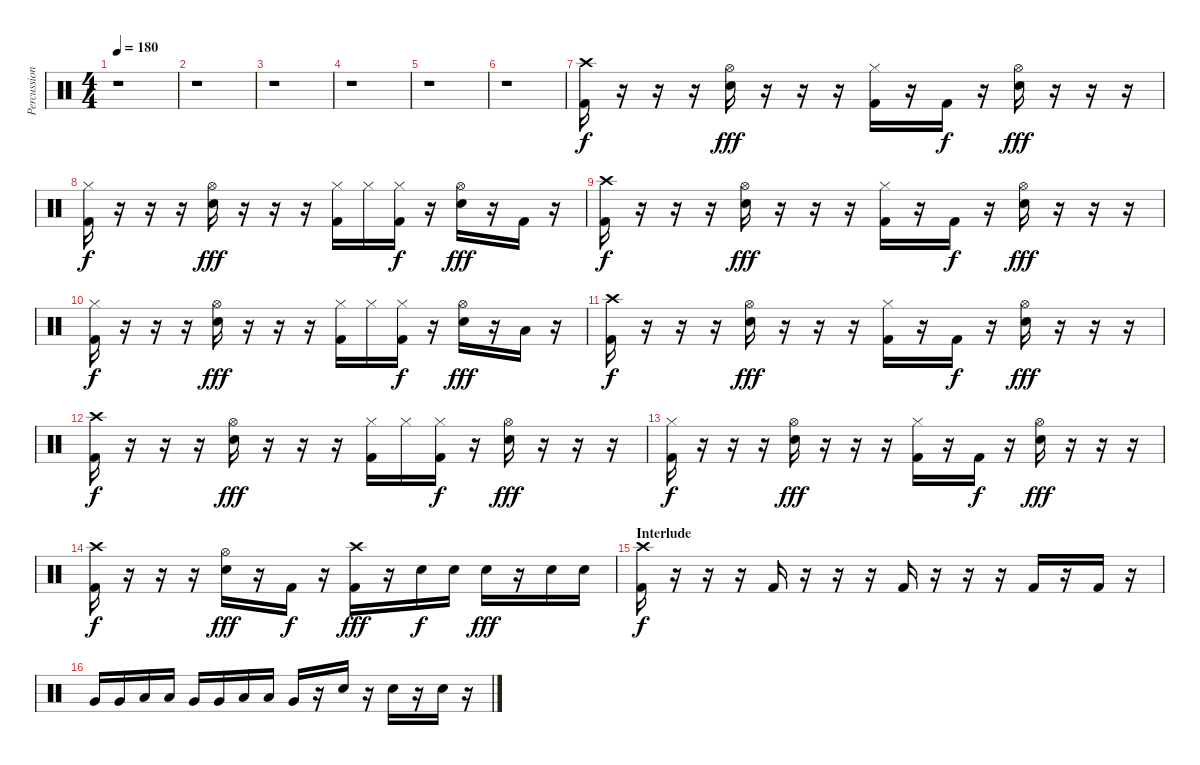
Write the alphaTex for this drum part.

\track ("Percussion" "Percussion") {instrument percussion}
\staff {score}
\articulation defaults
\ts (4 4)
\tempo 180
\clef neutral
\ks c
r.1{dy f} |
r.1 |
r.1 |
r.1 |
r.1 |
r.1 |
("Crash high (hit)" "Kick (hit) 2").16 r.16 r.16 r.16 ("Hi-Hat (open)" "Electric Snare (hit)").16{dy fff} r.16 r.16 r.16 ("Hi-Hat (closed)" "Kick (hit) 2").16 r.16 "Kick (hit) 2".16{dy f} r.16 ("Hi-Hat (open)" "Electric Snare (hit)").16{dy fff} r.16 r.16 r.16 |
("Hi-Hat (closed)" "Kick (hit) 2").16{dy f} r.16 r.16 r.16 ("Hi-Hat (open)" "Electric Snare (hit)").16{dy fff} r.16 r.16 r.16 ("Hi-Hat (closed)" "Kick (hit) 2").16 "Hi-Hat (closed)".16 ("Hi-Hat (closed)" "Kick (hit) 2").16{dy f} r.16 ("Hi-Hat (open)" "Electric Snare (hit)").16{dy fff} r.16 "Kick (hit) 2".16 r.16 |
("Crash high (hit)" "Kick (hit) 2").16{dy f} r.16 r.16 r.16 ("Hi-Hat (open)" "Electric Snare (hit)").16{dy fff} r.16 r.16 r.16 ("Hi-Hat (closed)" "Kick (hit) 2").16 r.16 "Kick (hit) 2".16{dy f} r.16 ("Hi-Hat (open)" "Electric Snare (hit)").16{dy fff} r.16 r.16 r.16 |
("Hi-Hat (closed)" "Kick (hit) 2").16{dy f} r.16 r.16 r.16 ("Hi-Hat (open)" "Electric Snare (hit)").16{dy fff} r.16 r.16 r.16 ("Hi-Hat (closed)" "Kick (hit) 2").16 "Hi-Hat (closed)".16 ("Hi-Hat (closed)" "Kick (hit) 2").16{dy f} r.16 ("Hi-Hat (open)" "Electric Snare (hit)").16{dy fff} r.16 "Low Floor Tom (hit)".16 r.16 |
("Crash high (hit)" "Kick (hit) 2").16{dy f} r.16 r.16 r.16 ("Hi-Hat (open)" "Electric Snare (hit)").16{dy fff} r.16 r.16 r.16 ("Hi-Hat (closed)" "Kick (hit) 2").16 r.16 "Kick (hit) 2".16{dy f} r.16 ("Hi-Hat (open)" "Electric Snare (hit)").16{dy fff} r.16 r.16 r.16 |
("Crash high (hit)" "Kick (hit) 2").16{dy f} r.16 r.16 r.16 ("Hi-Hat (open)" "Electric Snare (hit)").16{dy fff} r.16 r.16 r.16 ("Hi-Hat (closed)" "Kick (hit) 2").16 "Hi-Hat (closed)".16 ("Hi-Hat (closed)" "Kick (hit) 2").16{dy f} r.16 ("Hi-Hat (open)" "Electric Snare (hit)").16{dy fff} r.16 r.16 r.16 |
("Hi-Hat (closed)" "Kick (hit) 2").16{dy f} r.16 r.16 r.16 ("Hi-Hat (open)" "Electric Snare (hit)").16{dy fff} r.16 r.16 r.16 ("Hi-Hat (closed)" "Kick (hit) 2").16 r.16 "Kick (hit) 2".16{dy f} r.16 ("Hi-Hat (open)" "Electric Snare (hit)").16{dy fff} r.16 r.16 r.16 |
("Crash high (hit)" "Kick (hit) 2").16{dy f} r.16 r.16 r.16 ("Hi-Hat (open)" "Electric Snare (hit)").16{dy fff} r.16 "Kick (hit) 2".16{dy f} r.16 ("Crash high (hit)" "Kick (hit) 2").16{dy fff} r.16 "Electric Snare (hit)".16{dy f} "Electric Snare (hit)".16 "Electric Snare (hit)".16{dy fff} r.16 "Electric Snare (hit)".16 "Electric Snare (hit)".16 |
\section ("" "Interlude")
("Crash high (hit)" "Kick (hit) 2").16{dy f} r.16 r.16 r.16 "Kick (hit) 2".16 r.16 r.16 r.16 "Kick (hit) 2".16 r.16 r.16 r.16 "Kick (hit) 2".16 r.16 "Kick (hit) 2".16 r.16 |
"Very Low Tom (hit)".16 "Very Low Tom (hit)".16 "Low Floor Tom (hit)".16 "Low Floor Tom (hit)".16 "Very Low Tom (hit)".16 "Very Low Tom (hit)".16 "Low Floor Tom (hit)".16 "Low Floor Tom (hit)".16 "Very Low Tom (hit)".16 r.16 "Electric Snare (hit)".16 r.16 "Electric Snare (hit)".16 r.16 "Electric Snare (hit)".16 r.16
